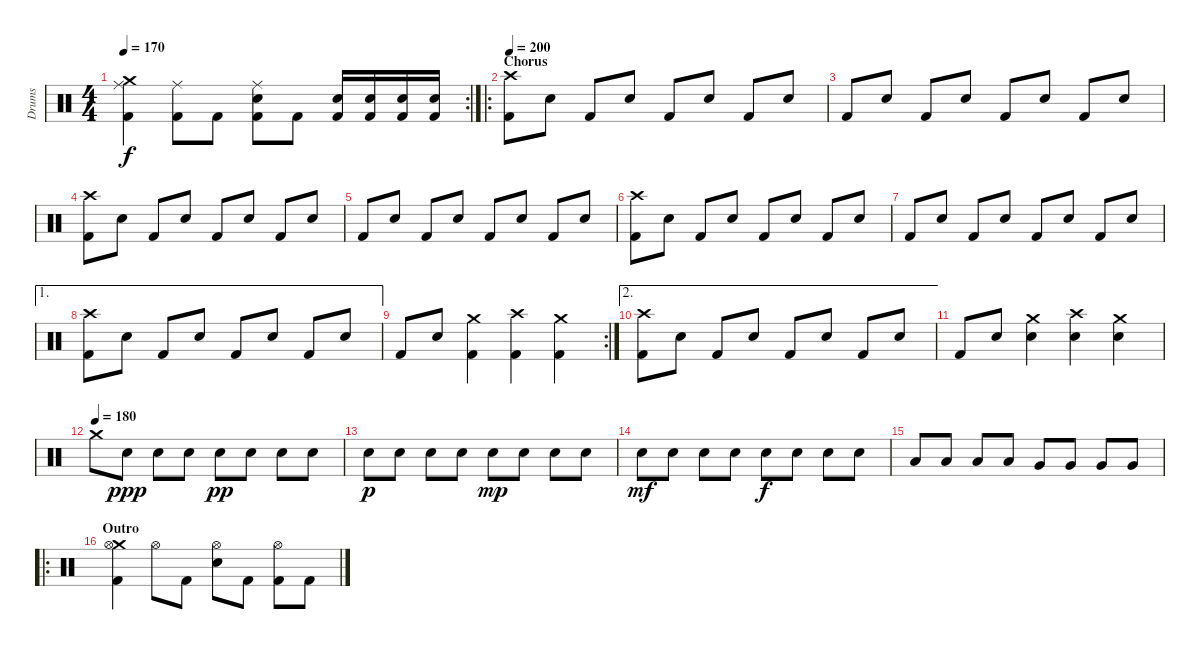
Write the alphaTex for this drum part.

\track ("Drums" "Drums") {instrument percussion}
\staff {score}
\articulation defaults
\rc 2
\ts (4 4)
\tempo 170
\clef neutral
\ks c
("Ride (middle)" "Crash medium (hit)" "Kick (hit) 2").4{dy f} ("Ride (middle)" "Kick (hit) 2").8 "Kick (hit) 2".8 ("Ride (middle)" "Snare (hit) 2" "Kick (hit) 2").8 "Kick (hit) 2".8 ("Snare (hit) 2" "Kick (hit) 2").16 ("Snare (hit) 2" "Kick (hit) 2").16 ("Snare (hit) 2" "Kick (hit) 2").16 ("Snare (hit) 2" "Kick (hit) 2").16 |
\ro
\section ("" "Chorus")
\tempo 200
("Crash high (hit)" "Kick (hit) 2").8 "Snare (hit) 2".8 "Kick (hit) 2".8 "Snare (hit) 2".8 "Kick (hit) 2".8 "Snare (hit) 2".8 "Kick (hit) 2".8 "Snare (hit) 2".8 |
"Kick (hit) 2".8 "Snare (hit) 2".8 "Kick (hit) 2".8 "Snare (hit) 2".8 "Kick (hit) 2".8 "Snare (hit) 2".8 "Kick (hit) 2".8 "Snare (hit) 2".8 |
("Crash high (hit)" "Kick (hit) 2").8 "Snare (hit) 2".8 "Kick (hit) 2".8 "Snare (hit) 2".8 "Kick (hit) 2".8 "Snare (hit) 2".8 "Kick (hit) 2".8 "Snare (hit) 2".8 |
"Kick (hit) 2".8 "Snare (hit) 2".8 "Kick (hit) 2".8 "Snare (hit) 2".8 "Kick (hit) 2".8 "Snare (hit) 2".8 "Kick (hit) 2".8 "Snare (hit) 2".8 |
("Crash high (hit)" "Kick (hit) 2").8 "Snare (hit) 2".8 "Kick (hit) 2".8 "Snare (hit) 2".8 "Kick (hit) 2".8 "Snare (hit) 2".8 "Kick (hit) 2".8 "Snare (hit) 2".8 |
"Kick (hit) 2".8 "Snare (hit) 2".8 "Kick (hit) 2".8 "Snare (hit) 2".8 "Kick (hit) 2".8 "Snare (hit) 2".8 "Kick (hit) 2".8 "Snare (hit) 2".8 |
\ae 1
("Crash high (hit)" "Kick (hit) 2").8 "Snare (hit) 2".8 "Kick (hit) 2".8 "Snare (hit) 2".8 "Kick (hit) 2".8 "Snare (hit) 2".8 "Kick (hit) 2".8 "Snare (hit) 2".8 |
\rc 2 "Kick (hit) 2".8 "Snare (hit) 2".8
("Crash medium (hit)" "Kick (hit) 2").4 ("Crash high (hit)" "Kick (hit) 2").4 ("Crash medium (hit)" "Kick (hit) 2").4 |
\ae 2
("Crash high (hit)" "Kick (hit) 2").8 "Snare (hit) 2".8 "Kick (hit) 2".8 "Snare (hit) 2".8 "Kick (hit) 2".8 "Snare (hit) 2".8 "Kick (hit) 2".8 "Snare (hit) 2".8 |
"Kick (hit) 2".8 "Snare (hit) 2".8 ("Crash medium (hit)" "Snare (hit) 2").4 ("Crash high (hit)" "Snare (hit) 2").4 ("Crash medium (hit)" "Snare (hit) 2").4 |
\tempo (180)
"Crash medium (hit)".8 "Snare (hit) 2".8{dy ppp} "Snare (hit) 2".8 "Snare (hit) 2".8 "Snare (hit) 2".8{dy pp} "Snare (hit) 2".8 "Snare (hit) 2".8 "Snare (hit) 2".8 |
"Snare (hit) 2".8{dy p} "Snare (hit) 2".8 "Snare (hit) 2".8 "Snare (hit) 2".8 "Snare (hit) 2".8{dy mp} "Snare (hit) 2".8 "Snare (hit) 2".8 "Snare (hit) 2".8 |
"Snare (hit) 2".8{dy mf} "Snare (hit) 2".8 "Snare (hit) 2".8 "Snare (hit) 2".8 "Snare (hit) 2".8{dy f} "Snare (hit) 2".8 "Snare (hit) 2".8 "Snare (hit) 2".8 |
"Low Tom (hit)".8 "Low Tom (hit)".8 "Low Tom (hit)".8 "Low Tom (hit)".8 "Very Low Tom (hit)".8 "Very Low Tom (hit)".8 "Very Low Tom (hit)".8 "Very Low Tom (hit)".8 |
\ro
\section ("" "Outro")
("Crash medium (hit)" "Hi-Hat (open)" "Kick (hit) 2").4 "Hi-Hat (open)".8 "Kick (hit) 2".8 ("Hi-Hat (open)" "Snare (hit) 2").8 "Kick (hit) 2".8 ("Hi-Hat (open)" "Kick (hit) 2").8 "Kick (hit) 2".8
